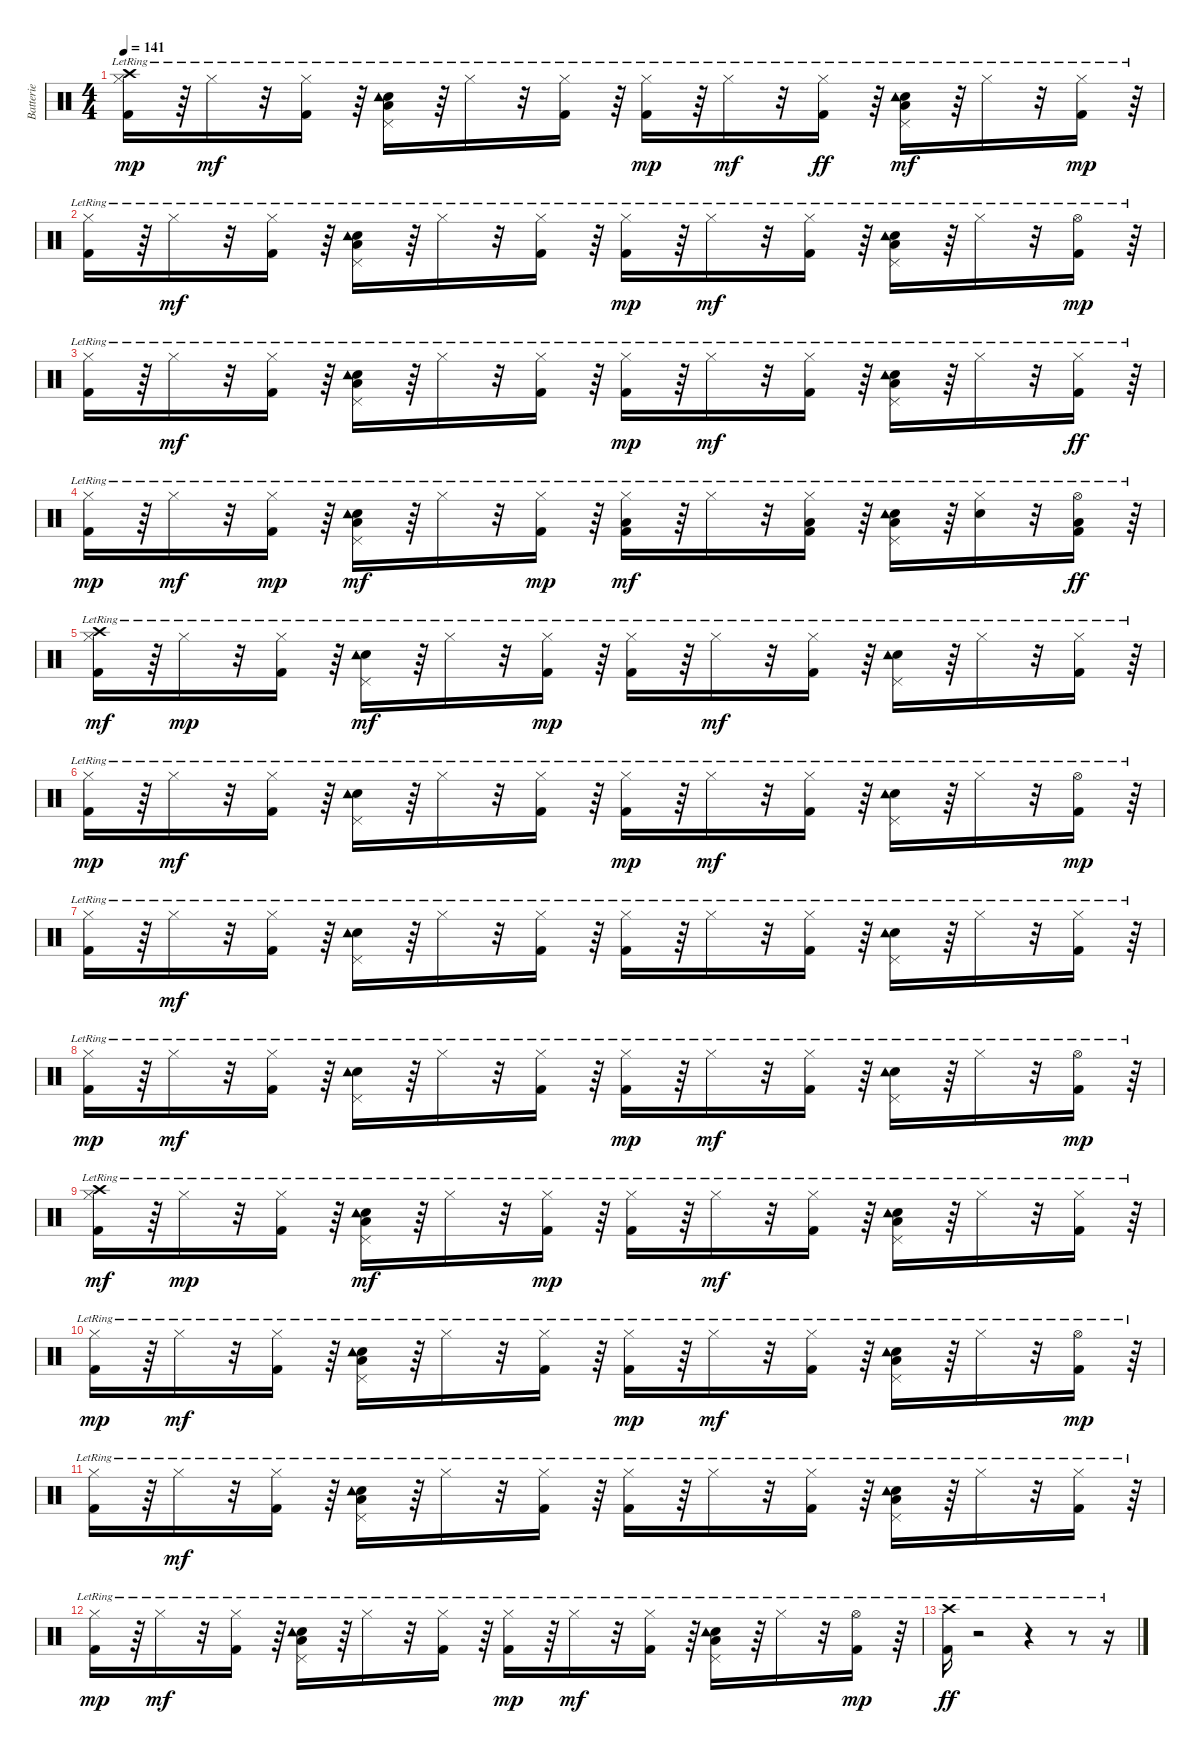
\track ("Batterie" "Batterie") {instrument percussion}
\staff {score}
\articulation defaults
\ts (4 4)
\tempo 141
\clef neutral
\ks c
("Hi-Hat (closed)"{lr} "Crash high (hit)"{lr} "Kick (hit) 2"{lr}).16{dy mp} r.64 "Hi-Hat (closed)"{lr}.16{dy mf} r.32 ("Hi-Hat (closed)"{lr} "Kick (hit) 2"{lr}).16 r.64 ("Pedal Hi-Hat (hit)"{lr} "Snare (hit) 2"{lr} "Low Floor Tom (hit)"{lr} "Tambourine (hit)"{lr}).16 r.64 "Hi-Hat (closed)"{lr}.16 r.32 ("Hi-Hat (closed)"{lr} "Kick (hit) 2"{lr}).16 r.64 ("Hi-Hat (closed)"{lr} "Kick (hit) 2"{lr}).16{dy mp} r.64 "Hi-Hat (closed)"{lr}.16{dy mf} r.32 ("Hi-Hat (closed)"{lr} "Kick (hit) 2"{lr}).16{dy ff} r.64 ("Pedal Hi-Hat (hit)"{lr} "Snare (hit) 2"{lr} "Low Floor Tom (hit)"{lr} "Tambourine (hit)"{lr}).16{dy mf} r.64 "Hi-Hat (closed)"{lr}.16 r.32 ("Hi-Hat (closed)"{lr} "Kick (hit) 2"{lr}).16{dy mp} r.64 |
("Hi-Hat (closed)"{lr} "Kick (hit) 2"{lr}).16 r.64 "Hi-Hat (closed)"{lr}.16{dy mf} r.32 ("Hi-Hat (closed)"{lr} "Kick (hit) 2"{lr}).16 r.64 ("Pedal Hi-Hat (hit)"{lr} "Snare (hit) 2"{lr} "Low Floor Tom (hit)"{lr} "Tambourine (hit)"{lr}).16 r.64 "Hi-Hat (closed)"{lr}.16 r.32 ("Hi-Hat (closed)"{lr} "Kick (hit) 2"{lr}).16 r.64 ("Hi-Hat (closed)"{lr} "Kick (hit) 2"{lr}).16{dy mp} r.64 "Hi-Hat (closed)"{lr}.16{dy mf} r.32 ("Hi-Hat (closed)"{lr} "Kick (hit) 2"{lr}).16 r.64 ("Pedal Hi-Hat (hit)"{lr} "Snare (hit) 2"{lr} "Low Floor Tom (hit)"{lr} "Tambourine (hit)"{lr}).16 r.64 "Hi-Hat (closed)"{lr}.16 r.32 ("Hi-Hat (open)"{lr} "Kick (hit) 2"{lr}).16{dy mp} r.64 |
("Hi-Hat (closed)"{lr} "Kick (hit) 2"{lr}).16 r.64 "Hi-Hat (closed)"{lr}.16{dy mf} r.32 ("Hi-Hat (closed)"{lr} "Kick (hit) 2"{lr}).16 r.64 ("Pedal Hi-Hat (hit)"{lr} "Snare (hit) 2"{lr} "Low Floor Tom (hit)"{lr} "Tambourine (hit)"{lr}).16 r.64 "Hi-Hat (closed)"{lr}.16 r.32 ("Hi-Hat (closed)"{lr} "Kick (hit) 2"{lr}).16 r.64 ("Hi-Hat (closed)"{lr} "Kick (hit) 2"{lr}).16{dy mp} r.64 "Hi-Hat (closed)"{lr}.16{dy mf} r.32 ("Hi-Hat (closed)"{lr} "Kick (hit) 2"{lr}).16 r.64 ("Pedal Hi-Hat (hit)"{lr} "Snare (hit) 2"{lr} "Low Floor Tom (hit)"{lr} "Tambourine (hit)"{lr}).16 r.64 "Hi-Hat (closed)"{lr}.16 r.32 ("Hi-Hat (closed)"{lr} "Kick (hit) 2"{lr}).16{dy ff} r.64 |
("Hi-Hat (closed)"{lr} "Kick (hit) 2"{lr}).16{dy mp} r.64 "Hi-Hat (closed)"{lr}.16{dy mf} r.32 ("Hi-Hat (closed)"{lr} "Kick (hit) 2"{lr}).16{dy mp} r.64 ("Pedal Hi-Hat (hit)"{lr} "Snare (hit) 2"{lr} "Low Floor Tom (hit)"{lr} "Tambourine (hit)"{lr}).16{dy mf} r.64 "Hi-Hat (closed)"{lr}.16 r.32 ("Hi-Hat (closed)"{lr} "Kick (hit) 2"{lr}).16{dy mp} r.64 ("Hi-Hat (closed)"{lr} "Kick (hit) 2"{lr} "Low Floor Tom (hit)"{lr}).16{dy mf} r.64 "Hi-Hat (closed)"{lr}.16 r.32 ("Hi-Hat (closed)"{lr} "Kick (hit) 2"{lr} "Low Floor Tom (hit)"{lr}).16 r.64 ("Pedal Hi-Hat (hit)"{lr} "Snare (hit) 2"{lr} "Low Floor Tom (hit)"{lr} "Tambourine (hit)"{lr}).16 r.64 ("Hi-Hat (closed)"{lr} "Snare (hit) 2"{lr}).16 r.32 ("Hi-Hat (open)"{lr} "Kick (hit) 2"{lr} "Low Floor Tom (hit)"{lr}).16{dy ff} r.64 |
("Hi-Hat (closed)"{lr} "Crash high (hit)"{lr} "Kick (hit) 2"{lr}).16{dy mf} r.64 "Hi-Hat (closed)"{lr}.16{dy mp} r.32 ("Hi-Hat (closed)"{lr} "Kick (hit) 2"{lr}).16 r.64 ("Pedal Hi-Hat (hit)"{lr} "Snare (hit) 2"{lr} "Tambourine (hit)"{lr}).16{dy mf} r.64 "Hi-Hat (closed)"{lr}.16 r.32 ("Hi-Hat (closed)"{lr} "Kick (hit) 2"{lr}).16{dy mp} r.64 ("Hi-Hat (closed)"{lr} "Kick (hit) 2"{lr}).16 r.64 "Hi-Hat (closed)"{lr}.16{dy mf} r.32 ("Hi-Hat (closed)"{lr} "Kick (hit) 2"{lr}).16 r.64 ("Pedal Hi-Hat (hit)"{lr} "Snare (hit) 2"{lr} "Tambourine (hit)"{lr}).16 r.64 "Hi-Hat (closed)"{lr}.16 r.32 ("Hi-Hat (closed)"{lr} "Kick (hit) 2"{lr}).16 r.64 |
("Hi-Hat (closed)"{lr} "Kick (hit) 2"{lr}).16{dy mp} r.64 "Hi-Hat (closed)"{lr}.16{dy mf} r.32 ("Hi-Hat (closed)"{lr} "Kick (hit) 2"{lr}).16 r.64 ("Pedal Hi-Hat (hit)"{lr} "Snare (hit) 2"{lr} "Tambourine (hit)"{lr}).16 r.64 "Hi-Hat (closed)"{lr}.16 r.32 ("Hi-Hat (closed)"{lr} "Kick (hit) 2"{lr}).16 r.64 ("Hi-Hat (closed)"{lr} "Kick (hit) 2"{lr}).16{dy mp} r.64 "Hi-Hat (closed)"{lr}.16{dy mf} r.32 ("Hi-Hat (closed)"{lr} "Kick (hit) 2"{lr}).16 r.64 ("Pedal Hi-Hat (hit)"{lr} "Snare (hit) 2"{lr} "Tambourine (hit)"{lr}).16 r.64 "Hi-Hat (closed)"{lr}.16 r.32 ("Hi-Hat (open)"{lr} "Kick (hit) 2"{lr}).16{dy mp} r.64 |
("Hi-Hat (closed)"{lr} "Kick (hit) 2"{lr}).16 r.64 "Hi-Hat (closed)"{lr}.16{dy mf} r.32 ("Hi-Hat (closed)"{lr} "Kick (hit) 2"{lr}).16 r.64 ("Pedal Hi-Hat (hit)"{lr} "Snare (hit) 2"{lr} "Tambourine (hit)"{lr}).16 r.64 "Hi-Hat (closed)"{lr}.16 r.32 ("Hi-Hat (closed)"{lr} "Kick (hit) 2"{lr}).16 r.64 ("Hi-Hat (closed)"{lr} "Kick (hit) 2"{lr}).16 r.64 "Hi-Hat (closed)"{lr}.16 r.32 ("Hi-Hat (closed)"{lr} "Kick (hit) 2"{lr}).16 r.64 ("Pedal Hi-Hat (hit)"{lr} "Snare (hit) 2"{lr} "Tambourine (hit)"{lr}).16 r.64 "Hi-Hat (closed)"{lr}.16 r.32 ("Hi-Hat (closed)"{lr} "Kick (hit) 2"{lr}).16 r.64 |
("Hi-Hat (closed)"{lr} "Kick (hit) 2"{lr}).16{dy mp} r.64 "Hi-Hat (closed)"{lr}.16{dy mf} r.32 ("Hi-Hat (closed)"{lr} "Kick (hit) 2"{lr}).16 r.64 ("Pedal Hi-Hat (hit)"{lr} "Snare (hit) 2"{lr} "Tambourine (hit)"{lr}).16 r.64 "Hi-Hat (closed)"{lr}.16 r.32 ("Hi-Hat (closed)"{lr} "Kick (hit) 2"{lr}).16 r.64 ("Hi-Hat (closed)"{lr} "Kick (hit) 2"{lr}).16{dy mp} r.64 "Hi-Hat (closed)"{lr}.16{dy mf} r.32 ("Hi-Hat (closed)"{lr} "Kick (hit) 2"{lr}).16 r.64 ("Pedal Hi-Hat (hit)"{lr} "Snare (hit) 2"{lr} "Tambourine (hit)"{lr}).16 r.64 "Hi-Hat (closed)"{lr}.16 r.32 ("Hi-Hat (open)"{lr} "Kick (hit) 2"{lr}).16{dy mp} r.64 |
("Hi-Hat (closed)"{lr} "Crash high (hit)"{lr} "Kick (hit) 2"{lr}).16{dy mf} r.64 "Hi-Hat (closed)"{lr}.16{dy mp} r.32 ("Hi-Hat (closed)"{lr} "Kick (hit) 2"{lr}).16 r.64 ("Pedal Hi-Hat (hit)"{lr} "Snare (hit) 2"{lr} "Low Floor Tom (hit)"{lr} "Tambourine (hit)"{lr}).16{dy mf} r.64 "Hi-Hat (closed)"{lr}.16 r.32 ("Hi-Hat (closed)"{lr} "Kick (hit) 2"{lr}).16{dy mp} r.64 ("Hi-Hat (closed)"{lr} "Kick (hit) 2"{lr}).16 r.64 "Hi-Hat (closed)"{lr}.16{dy mf} r.32 ("Hi-Hat (closed)"{lr} "Kick (hit) 2"{lr}).16 r.64 ("Pedal Hi-Hat (hit)"{lr} "Snare (hit) 2"{lr} "Low Floor Tom (hit)"{lr} "Tambourine (hit)"{lr}).16 r.64 "Hi-Hat (closed)"{lr}.16 r.32 ("Hi-Hat (closed)"{lr} "Kick (hit) 2"{lr}).16 r.64 |
("Hi-Hat (closed)"{lr} "Kick (hit) 2"{lr}).16{dy mp} r.64 "Hi-Hat (closed)"{lr}.16{dy mf} r.32 ("Hi-Hat (closed)"{lr} "Kick (hit) 2"{lr}).16 r.64 ("Pedal Hi-Hat (hit)"{lr} "Snare (hit) 2"{lr} "Low Floor Tom (hit)"{lr} "Tambourine (hit)"{lr}).16 r.64 "Hi-Hat (closed)"{lr}.16 r.32 ("Hi-Hat (closed)"{lr} "Kick (hit) 2"{lr}).16 r.64 ("Hi-Hat (closed)"{lr} "Kick (hit) 2"{lr}).16{dy mp} r.64 "Hi-Hat (closed)"{lr}.16{dy mf} r.32 ("Hi-Hat (closed)"{lr} "Kick (hit) 2"{lr}).16 r.64 ("Pedal Hi-Hat (hit)"{lr} "Snare (hit) 2"{lr} "Low Floor Tom (hit)"{lr} "Tambourine (hit)"{lr}).16 r.64 "Hi-Hat (closed)"{lr}.16 r.32 ("Hi-Hat (open)"{lr} "Kick (hit) 2"{lr}).16{dy mp} r.64 |
("Hi-Hat (closed)"{lr} "Kick (hit) 2"{lr}).16 r.64 "Hi-Hat (closed)"{lr}.16{dy mf} r.32 ("Hi-Hat (closed)"{lr} "Kick (hit) 2"{lr}).16 r.64 ("Pedal Hi-Hat (hit)"{lr} "Snare (hit) 2"{lr} "Low Floor Tom (hit)"{lr} "Tambourine (hit)"{lr}).16 r.64 "Hi-Hat (closed)"{lr}.16 r.32 ("Hi-Hat (closed)"{lr} "Kick (hit) 2"{lr}).16 r.64 ("Hi-Hat (closed)"{lr} "Kick (hit) 2"{lr}).16 r.64 "Hi-Hat (closed)"{lr}.16 r.32 ("Hi-Hat (closed)"{lr} "Kick (hit) 2"{lr}).16 r.64 ("Pedal Hi-Hat (hit)"{lr} "Snare (hit) 2"{lr} "Low Floor Tom (hit)"{lr} "Tambourine (hit)"{lr}).16 r.64 "Hi-Hat (closed)"{lr}.16 r.32 ("Hi-Hat (closed)"{lr} "Kick (hit) 2"{lr}).16 r.64 |
("Hi-Hat (closed)"{lr} "Kick (hit) 2"{lr}).16{dy mp} r.64 "Hi-Hat (closed)"{lr}.16{dy mf} r.32 ("Hi-Hat (closed)"{lr} "Kick (hit) 2"{lr}).16 r.64 ("Pedal Hi-Hat (hit)"{lr} "Snare (hit) 2"{lr} "Low Floor Tom (hit)"{lr} "Tambourine (hit)"{lr}).16 r.64 "Hi-Hat (closed)"{lr}.16 r.32 ("Hi-Hat (closed)"{lr} "Kick (hit) 2"{lr}).16 r.64 ("Hi-Hat (closed)"{lr} "Kick (hit) 2"{lr}).16{dy mp} r.64 "Hi-Hat (closed)"{lr}.16{dy mf} r.32 ("Hi-Hat (closed)"{lr} "Kick (hit) 2"{lr}).16 r.64 ("Pedal Hi-Hat (hit)"{lr} "Snare (hit) 2"{lr} "Low Floor Tom (hit)"{lr} "Tambourine (hit)"{lr}).16 r.64 "Hi-Hat (closed)"{lr}.16 r.32 ("Hi-Hat (open)"{lr} "Kick (hit) 2"{lr}).16{dy mp} r.64 |
("Crash high (hit)"{lr} "Kick (hit) 2"{lr}).16{dy ff} r.2 r.4 r.8 r.16
